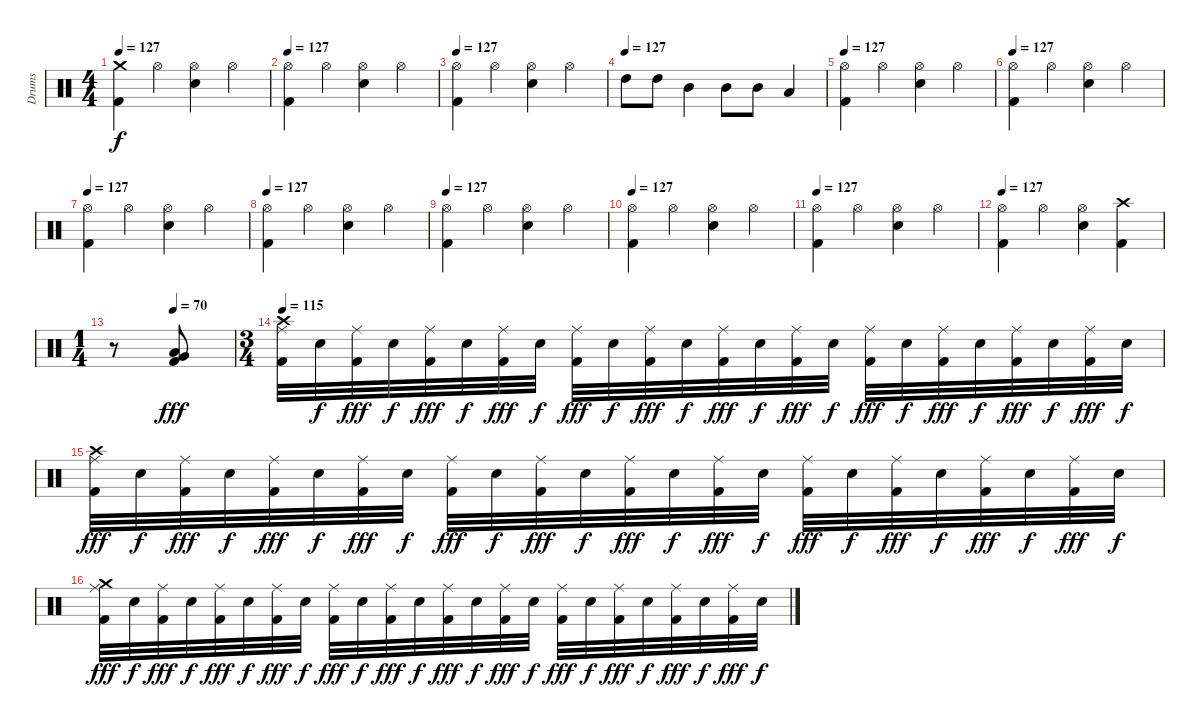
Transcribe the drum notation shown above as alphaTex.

\track ("Drums" "Drums") {instrument percussion}
\staff {score}
\articulation defaults
\ts (4 4)
\tempo 130
\tempo 127
\clef neutral
\ks c
("Crash medium (hit)" "Kick (hit) 2").4{dy f} "Hi-Hat (open)".4 ("Hi-Hat (open)" "Electric Snare (hit)").4 "Hi-Hat (open)".4 |
\tempo 130
\tempo 127
("Hi-Hat (open)" "Kick (hit) 2").4 "Hi-Hat (open)".4 ("Hi-Hat (open)" "Electric Snare (hit)").4 "Hi-Hat (open)".4 |
\tempo 130
\tempo 127
("Hi-Hat (open)" "Kick (hit) 2").4 "Hi-Hat (open)".4 ("Hi-Hat (open)" "Electric Snare (hit)").4 "Hi-Hat (open)".4 |
\tempo 130
\tempo (127)
"High Tom (hit)".8 "High Tom (hit)".8 "Mid Tom (hit)".4 "Mid Tom (hit)".8 "Mid Tom (hit)".8 "Low Tom (hit)".4 |
\tempo 127
("Hi-Hat (open)" "Kick (hit) 2").4 "Hi-Hat (open)".4 ("Hi-Hat (open)" "Electric Snare (hit)").4 "Hi-Hat (open)".4 |
\tempo 127
("Hi-Hat (open)" "Kick (hit) 2").4 "Hi-Hat (open)".4 ("Hi-Hat (open)" "Electric Snare (hit)").4 "Hi-Hat (open)".4 |
\tempo 127
("Hi-Hat (open)" "Kick (hit) 2").4 "Hi-Hat (open)".4 ("Hi-Hat (open)" "Electric Snare (hit)").4 "Hi-Hat (open)".4 |
\tempo 127
("Hi-Hat (open)" "Kick (hit) 2").4 "Hi-Hat (open)".4 ("Hi-Hat (open)" "Electric Snare (hit)").4 "Hi-Hat (open)".4 |
\tempo 127
("Hi-Hat (open)" "Kick (hit) 2").4 "Hi-Hat (open)".4 ("Hi-Hat (open)" "Electric Snare (hit)").4 "Hi-Hat (open)".4 |
\tempo 127
("Hi-Hat (open)" "Kick (hit) 2").4 "Hi-Hat (open)".4 ("Hi-Hat (open)" "Electric Snare (hit)").4 "Hi-Hat (open)".4 |
\tempo 127
("Hi-Hat (open)" "Kick (hit) 2").4 "Hi-Hat (open)".4 ("Hi-Hat (open)" "Electric Snare (hit)").4 "Hi-Hat (open)".4 |
\tempo 127
("Hi-Hat (open)" "Kick (hit) 2").4 "Hi-Hat (open)".4 ("Hi-Hat (open)" "Electric Snare (hit)").4 ("Crash high (hit)" "Kick (hit) 2").4 |
\ts (1 4)
\tempo (70 0.5)
r.8 ("Low Tom (hit)" "Very Low Tom (hit)" "Kick (hit) 2").8{dy fff} |
\ts (3 4)
\tempo 115
("Crash high (hit)" "Ride (middle)" "Kick (hit) 2").32 "Electric Snare (hit)".32{dy f} ("Ride (middle)" "Kick (hit) 2").32{dy fff} "Electric Snare (hit)".32{dy f} ("Ride (middle)" "Kick (hit) 2").32{dy fff} "Electric Snare (hit)".32{dy f} ("Ride (middle)" "Kick (hit) 2").32{dy fff} "Electric Snare (hit)".32{dy f} ("Ride (middle)" "Kick (hit) 2").32{dy fff} "Electric Snare (hit)".32{dy f} ("Ride (middle)" "Kick (hit) 2").32{dy fff} "Electric Snare (hit)".32{dy f} ("Ride (middle)" "Kick (hit) 2").32{dy fff} "Electric Snare (hit)".32{dy f} ("Ride (middle)" "Kick (hit) 2").32{dy fff} "Electric Snare (hit)".32{dy f} ("Ride (middle)" "Kick (hit) 2").32{dy fff} "Electric Snare (hit)".32{dy f} ("Ride (middle)" "Kick (hit) 2").32{dy fff} "Electric Snare (hit)".32{dy f} ("Ride (middle)" "Kick (hit) 2").32{dy fff} "Electric Snare (hit)".32{dy f} ("Ride (middle)" "Kick (hit) 2").32{dy fff} "Electric Snare (hit)".32{dy f} |
("Crash high (hit)" "Ride (middle)" "Kick (hit) 2").32{dy fff} "Electric Snare (hit)".32{dy f} ("Ride (middle)" "Kick (hit) 2").32{dy fff} "Electric Snare (hit)".32{dy f} ("Ride (middle)" "Kick (hit) 2").32{dy fff} "Electric Snare (hit)".32{dy f} ("Ride (middle)" "Kick (hit) 2").32{dy fff} "Electric Snare (hit)".32{dy f} ("Ride (middle)" "Kick (hit) 2").32{dy fff} "Electric Snare (hit)".32{dy f} ("Ride (middle)" "Kick (hit) 2").32{dy fff} "Electric Snare (hit)".32{dy f} ("Ride (middle)" "Kick (hit) 2").32{dy fff} "Electric Snare (hit)".32{dy f} ("Ride (middle)" "Kick (hit) 2").32{dy fff} "Electric Snare (hit)".32{dy f} ("Ride (middle)" "Kick (hit) 2").32{dy fff} "Electric Snare (hit)".32{dy f} ("Ride (middle)" "Kick (hit) 2").32{dy fff} "Electric Snare (hit)".32{dy f} ("Ride (middle)" "Kick (hit) 2").32{dy fff} "Electric Snare (hit)".32{dy f} ("Ride (middle)" "Kick (hit) 2").32{dy fff} "Electric Snare (hit)".32{dy f} |
("Crash medium (hit)" "Ride (middle)" "Kick (hit) 2").32{dy fff} "Electric Snare (hit)".32{dy f} ("Ride (middle)" "Kick (hit) 2").32{dy fff} "Electric Snare (hit)".32{dy f} ("Ride (middle)" "Kick (hit) 2").32{dy fff} "Electric Snare (hit)".32{dy f} ("Ride (middle)" "Kick (hit) 2").32{dy fff} "Electric Snare (hit)".32{dy f} ("Ride (middle)" "Kick (hit) 2").32{dy fff} "Electric Snare (hit)".32{dy f} ("Ride (middle)" "Kick (hit) 2").32{dy fff} "Electric Snare (hit)".32{dy f} ("Ride (middle)" "Kick (hit) 2").32{dy fff} "Electric Snare (hit)".32{dy f} ("Ride (middle)" "Kick (hit) 2").32{dy fff} "Electric Snare (hit)".32{dy f} ("Ride (middle)" "Kick (hit) 2").32{dy fff} "Electric Snare (hit)".32{dy f} ("Ride (middle)" "Kick (hit) 2").32{dy fff} "Electric Snare (hit)".32{dy f} ("Ride (middle)" "Kick (hit) 2").32{dy fff} "Electric Snare (hit)".32{dy f} ("Ride (middle)" "Kick (hit) 2").32{dy fff} "Electric Snare (hit)".32{dy f}
